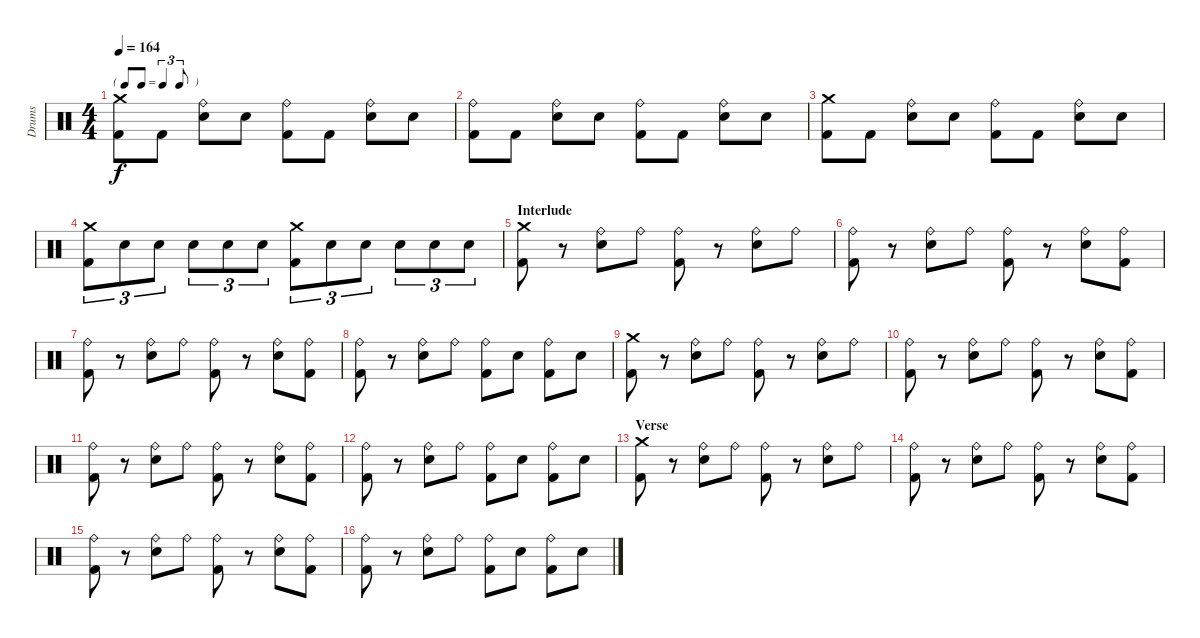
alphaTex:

\track ("Drums" "Drums") {instrument percussion}
\staff {score}
\articulation defaults
\ts (4 4)
\tf triplet8th
\tempo 164
\clef neutral
\ks c
("Crash medium (hit)" "Kick (hit) 2").8{dy f} "Kick (hit) 2".8 ("Ride (bell)" "Electric Snare (hit)").8 "Electric Snare (hit)".8 ("Ride (bell)" "Kick (hit) 2").8 "Kick (hit) 2".8 ("Ride (bell)" "Electric Snare (hit)").8 "Electric Snare (hit)".8 |
("Ride (bell)" "Kick (hit) 2").8 "Kick (hit) 2".8 ("Ride (bell)" "Electric Snare (hit)").8 "Electric Snare (hit)".8 ("Ride (bell)" "Kick (hit) 2").8 "Kick (hit) 2".8 ("Ride (bell)" "Electric Snare (hit)").8 "Electric Snare (hit)".8 |
("Crash medium (hit)" "Kick (hit) 2").8 "Kick (hit) 2".8 ("Ride (bell)" "Electric Snare (hit)").8 "Electric Snare (hit)".8 ("Ride (bell)" "Kick (hit) 2").8 "Kick (hit) 2".8 ("Ride (bell)" "Electric Snare (hit)").8 "Electric Snare (hit)".8 |
("Crash medium (hit)" "Kick (hit) 2").8{tu (3 2)} "Electric Snare (hit)".8{tu (3 2)} "Electric Snare (hit)".8{tu (3 2)} "Electric Snare (hit)".8{tu (3 2)} "Electric Snare (hit)".8{tu (3 2)} "Electric Snare (hit)".8{tu (3 2)} ("Crash medium (hit)" "Kick (hit) 2").8{tu (3 2)} "Electric Snare (hit)".8{tu (3 2)} "Electric Snare (hit)".8{tu (3 2)} "Electric Snare (hit)".8{tu (3 2)} "Electric Snare (hit)".8{tu (3 2)} "Electric Snare (hit)".8{tu (3 2)} |
\section ("" "Interlude")
("Crash medium (hit)" "Kick (hit) 2").8 r.8 ("Ride (bell)" "Electric Snare (hit)").8 "Ride (bell)".8 ("Ride (bell)" "Kick (hit) 2").8 r.8 ("Ride (bell)" "Electric Snare (hit)").8 "Ride (bell)".8 |
("Ride (bell)" "Kick (hit) 2").8 r.8 ("Ride (bell)" "Electric Snare (hit)").8 "Ride (bell)".8 ("Ride (bell)" "Kick (hit) 2").8 r.8 ("Ride (bell)" "Electric Snare (hit)").8 ("Ride (bell)" "Kick (hit) 2").8 |
("Ride (bell)" "Kick (hit) 2").8 r.8 ("Ride (bell)" "Electric Snare (hit)").8 "Ride (bell)".8 ("Ride (bell)" "Kick (hit) 2").8 r.8 ("Ride (bell)" "Electric Snare (hit)").8 ("Ride (bell)" "Kick (hit) 2").8 |
("Ride (bell)" "Kick (hit) 2").8 r.8 ("Ride (bell)" "Electric Snare (hit)").8 "Ride (bell)".8 ("Ride (bell)" "Kick (hit) 2").8 "Electric Snare (hit)".8 ("Ride (bell)" "Kick (hit) 2").8 "Electric Snare (hit)".8 |
("Crash medium (hit)" "Kick (hit) 2").8 r.8 ("Ride (bell)" "Electric Snare (hit)").8 "Ride (bell)".8 ("Ride (bell)" "Kick (hit) 2").8 r.8 ("Ride (bell)" "Electric Snare (hit)").8 "Ride (bell)".8 |
("Ride (bell)" "Kick (hit) 2").8 r.8 ("Ride (bell)" "Electric Snare (hit)").8 "Ride (bell)".8 ("Ride (bell)" "Kick (hit) 2").8 r.8 ("Ride (bell)" "Electric Snare (hit)").8 ("Ride (bell)" "Kick (hit) 2").8 |
("Ride (bell)" "Kick (hit) 2").8 r.8 ("Ride (bell)" "Electric Snare (hit)").8 "Ride (bell)".8 ("Ride (bell)" "Kick (hit) 2").8 r.8 ("Ride (bell)" "Electric Snare (hit)").8 ("Ride (bell)" "Kick (hit) 2").8 |
("Ride (bell)" "Kick (hit) 2").8 r.8 ("Ride (bell)" "Electric Snare (hit)").8 "Ride (bell)".8 ("Ride (bell)" "Kick (hit) 2").8 "Electric Snare (hit)".8 ("Ride (bell)" "Kick (hit) 2").8 "Electric Snare (hit)".8 |
\section ("" "Verse")
("Crash medium (hit)" "Kick (hit) 2").8 r.8 ("Ride (bell)" "Electric Snare (hit)").8 "Ride (bell)".8 ("Ride (bell)" "Kick (hit) 2").8 r.8 ("Ride (bell)" "Electric Snare (hit)").8 "Ride (bell)".8 |
("Ride (bell)" "Kick (hit) 2").8 r.8 ("Ride (bell)" "Electric Snare (hit)").8 "Ride (bell)".8 ("Ride (bell)" "Kick (hit) 2").8 r.8 ("Ride (bell)" "Electric Snare (hit)").8 ("Ride (bell)" "Kick (hit) 2").8 |
("Ride (bell)" "Kick (hit) 2").8 r.8 ("Ride (bell)" "Electric Snare (hit)").8 "Ride (bell)".8 ("Ride (bell)" "Kick (hit) 2").8 r.8 ("Ride (bell)" "Electric Snare (hit)").8 ("Ride (bell)" "Kick (hit) 2").8 |
("Ride (bell)" "Kick (hit) 2").8 r.8 ("Ride (bell)" "Electric Snare (hit)").8 "Ride (bell)".8 ("Ride (bell)" "Kick (hit) 2").8 "Electric Snare (hit)".8 ("Ride (bell)" "Kick (hit) 2").8 "Electric Snare (hit)".8
